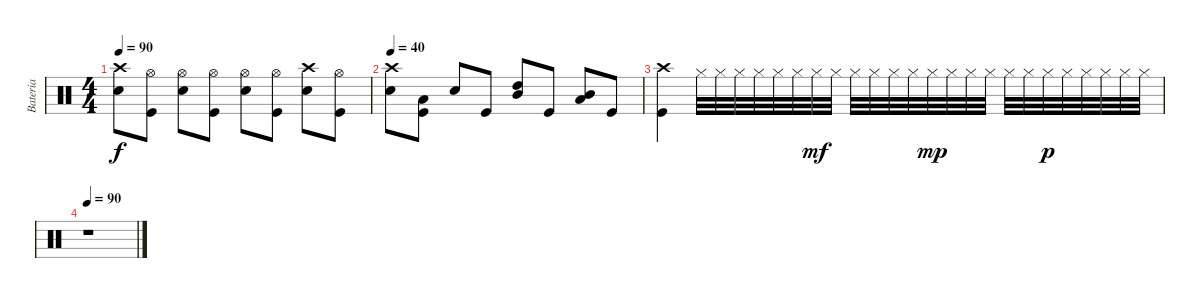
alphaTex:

\track ("Bateria" "Bateria") {instrument percussion}
\staff {score}
\articulation defaults
\ts (4 4)
\tempo 90
\clef neutral
\ks c
("Crash high (hit)" "Snare (hit) 2").8{dy f} ("Hi-Hat (open)" "Kick (hit)").8 ("Hi-Hat (open)" "Snare (hit) 2").8 ("Hi-Hat (open)" "Kick (hit)").8 ("Hi-Hat (open)" "Snare (hit) 2").8 ("Hi-Hat (open)" "Kick (hit)").8 ("Crash high (hit)" "Snare (hit) 2").8 ("Hi-Hat (open)" "Kick (hit)").8 |
\tempo 40
("Crash high (hit)" "Snare (hit) 2").8 ("Low Tom (hit)" "Kick (hit)").8 "Snare (hit) 2".8 "Kick (hit)".8 ("High Tom (hit)" "Mid Tom (hit)").8 "Kick (hit)".8 ("Mid Tom (hit)" "Low Tom (hit)").8 "Kick (hit)".8 |
("Crash high (hit)" "Kick (hit)").4 "Hi-Hat (closed)".32 "Hi-Hat (closed)".32 "Hi-Hat (closed)".32 "Hi-Hat (closed)".32 "Hi-Hat (closed)".32 "Hi-Hat (closed)".32 "Hi-Hat (closed)".32{dy mf} "Hi-Hat (closed)".32 "Hi-Hat (closed)".32 "Hi-Hat (closed)".32 "Hi-Hat (closed)".32 "Hi-Hat (closed)".32 "Hi-Hat (closed)".32{dy mp} "Hi-Hat (closed)".32 "Hi-Hat (closed)".32 "Hi-Hat (closed)".32 "Hi-Hat (closed)".32 "Hi-Hat (closed)".32 "Hi-Hat (closed)".32{dy p} "Hi-Hat (closed)".32 "Hi-Hat (closed)".32 "Hi-Hat (closed)".32 "Hi-Hat (closed)".32 "Hi-Hat (closed)".32 |
\tempo 90
r.1
